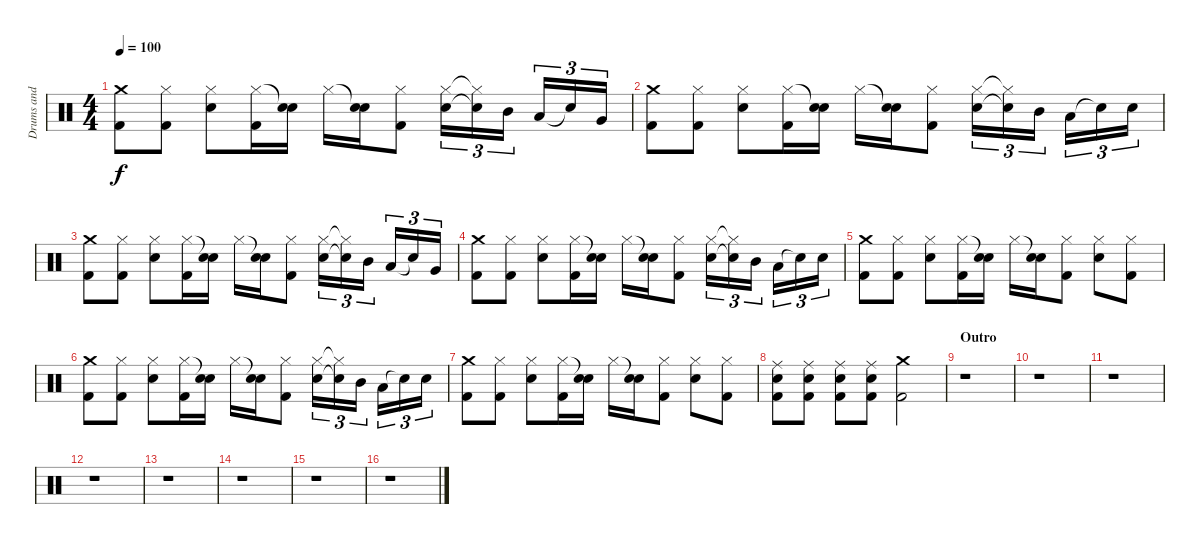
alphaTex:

\track ("Drums and Percussion" "Drums and ") {instrument percussion}
\staff {score}
\articulation defaults
\ts (4 4)
\tempo 100
\clef neutral
\ks c
("Crash medium (hit)" "Kick (hit) 2").8{dy f} ("Hi-Hat (closed)" "Kick (hit) 2").8 ("Hi-Hat (closed)" "Electric Snare (hit)").8 ("Hi-Hat (closed)" "Kick (hit) 2").16 ("Snare (hit)"{t} "Electric Snare (hit)").16 "Hi-Hat (closed)".16 ("Snare (hit)"{t} "Electric Snare (hit)").16 ("Hi-Hat (closed)" "Kick (hit) 2").8 ("Hi-Hat (closed)" "Electric Snare (hit)").16{tu (3 2)} ("Hi-Hat (closed)"{t} "Snare (hit)"{t}).16{tu (3 2)} "Mid Tom (hit)".16{tu (3 2)} "Low Tom (hit)".16{tu (3 2)} "Snare (hit)"{t}.16{tu (3 2)} "Very Low Tom (hit)".16{tu (3 2)} |
("Crash medium (hit)" "Kick (hit) 2").8 ("Hi-Hat (closed)" "Kick (hit) 2").8 ("Hi-Hat (closed)" "Electric Snare (hit)").8 ("Hi-Hat (closed)" "Kick (hit) 2").16 ("Snare (hit)"{t} "Electric Snare (hit)").16 "Hi-Hat (closed)".16 ("Snare (hit)"{t} "Electric Snare (hit)").16 ("Hi-Hat (closed)" "Kick (hit) 2").8 ("Hi-Hat (closed)" "Electric Snare (hit)").16{tu (3 2)} ("Hi-Hat (closed)"{t} "Snare (hit)"{t}).16{tu (3 2)} "Mid Tom (hit)".16{tu (3 2)} "Low Tom (hit)".16{tu (3 2)} "Snare (hit)"{t}.16{tu (3 2)} "Electric Snare (hit)".16{tu (3 2)} |
("Crash medium (hit)" "Kick (hit) 2").8 ("Hi-Hat (closed)" "Kick (hit) 2").8 ("Hi-Hat (closed)" "Electric Snare (hit)").8 ("Hi-Hat (closed)" "Kick (hit) 2").16 ("Snare (hit)"{t} "Electric Snare (hit)").16 "Hi-Hat (closed)".16 ("Snare (hit)"{t} "Electric Snare (hit)").16 ("Hi-Hat (closed)" "Kick (hit) 2").8 ("Hi-Hat (closed)" "Electric Snare (hit)").16{tu (3 2)} ("Hi-Hat (closed)"{t} "Snare (hit)"{t}).16{tu (3 2)} "Mid Tom (hit)".16{tu (3 2)} "Low Tom (hit)".16{tu (3 2)} "Snare (hit)"{t}.16{tu (3 2)} "Very Low Tom (hit)".16{tu (3 2)} |
("Crash medium (hit)" "Kick (hit) 2").8 ("Hi-Hat (closed)" "Kick (hit) 2").8 ("Hi-Hat (closed)" "Electric Snare (hit)").8 ("Hi-Hat (closed)" "Kick (hit) 2").16 ("Snare (hit)"{t} "Electric Snare (hit)").16 "Hi-Hat (closed)".16 ("Snare (hit)"{t} "Electric Snare (hit)").16 ("Hi-Hat (closed)" "Kick (hit) 2").8 ("Hi-Hat (closed)" "Electric Snare (hit)").16{tu (3 2)} ("Hi-Hat (closed)"{t} "Snare (hit)"{t}).16{tu (3 2)} "Mid Tom (hit)".16{tu (3 2)} "Low Tom (hit)".16{tu (3 2)} "Snare (hit)"{t}.16{tu (3 2)} "Electric Snare (hit)".16{tu (3 2)} |
("Crash medium (hit)" "Kick (hit) 2").8 ("Hi-Hat (closed)" "Kick (hit) 2").8 ("Hi-Hat (closed)" "Electric Snare (hit)").8 ("Hi-Hat (closed)" "Kick (hit) 2").16 ("Snare (hit)"{t} "Electric Snare (hit)").16 "Hi-Hat (closed)".16 ("Snare (hit)"{t} "Electric Snare (hit)").16 ("Hi-Hat (closed)" "Kick (hit) 2").8 ("Hi-Hat (closed)" "Electric Snare (hit)").8 ("Hi-Hat (closed)" "Kick (hit) 2").8 |
("Crash medium (hit)" "Kick (hit) 2").8 ("Hi-Hat (closed)" "Kick (hit) 2").8 ("Hi-Hat (closed)" "Electric Snare (hit)").8 ("Hi-Hat (closed)" "Kick (hit) 2").16 ("Snare (hit)"{t} "Electric Snare (hit)").16 "Hi-Hat (closed)".16 ("Snare (hit)"{t} "Electric Snare (hit)").16 ("Hi-Hat (closed)" "Kick (hit) 2").8 ("Hi-Hat (closed)" "Electric Snare (hit)").16{tu (3 2)} ("Hi-Hat (closed)"{t} "Snare (hit)"{t}).16{tu (3 2)} "Mid Tom (hit)".16{tu (3 2)} "Low Tom (hit)".16{tu (3 2)} "Snare (hit)"{t}.16{tu (3 2)} "Electric Snare (hit)".16{tu (3 2)} |
("Crash medium (hit)" "Kick (hit) 2").8 ("Hi-Hat (closed)" "Kick (hit) 2").8 ("Hi-Hat (closed)" "Electric Snare (hit)").8 ("Hi-Hat (closed)" "Kick (hit) 2").16 ("Snare (hit)"{t} "Electric Snare (hit)").16 "Hi-Hat (closed)".16 ("Snare (hit)"{t} "Electric Snare (hit)").16 ("Hi-Hat (closed)" "Kick (hit) 2").8 ("Hi-Hat (closed)" "Electric Snare (hit)").8 ("Hi-Hat (closed)" "Kick (hit) 2").8 |
("Ride (middle)" "Electric Snare (hit)" "Kick (hit) 2").8 ("Ride (middle)" "Electric Snare (hit)" "Kick (hit) 2").8 ("Ride (middle)" "Electric Snare (hit)" "Kick (hit) 2").8 ("Ride (middle)" "Electric Snare (hit)" "Kick (hit) 2").8 ("Crash medium (hit)" "Kick (hit) 2").2 |
\section ("" "Outro")
r.1 |
r.1 |
r.1 |
r.1 |
r.1 |
r.1 |
r.1 |
r.1
